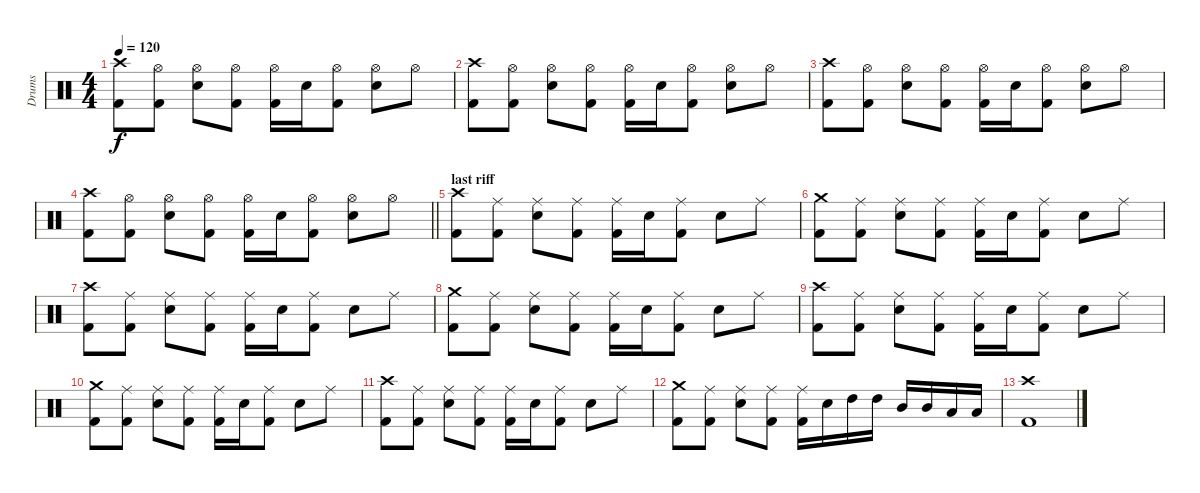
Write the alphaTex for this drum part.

\track ("Drums" "Drums") {instrument percussion}
\staff {score}
\articulation defaults
\ts (4 4)
\tempo 120
\clef neutral
\ks c
("Crash high (hit)" "Kick (hit) 2").8{dy f} ("Hi-Hat (open)" "Kick (hit) 2").8 ("Hi-Hat (open)" "Snare (hit) 2").8 ("Hi-Hat (open)" "Kick (hit) 2").8 ("Hi-Hat (open)" "Kick (hit) 2").16 "Snare (hit) 2".16 ("Hi-Hat (open)" "Kick (hit) 2").8 ("Hi-Hat (open)" "Snare (hit) 2").8 "Hi-Hat (open)".8 |
("Crash high (hit)" "Kick (hit) 2").8 ("Hi-Hat (open)" "Kick (hit) 2").8 ("Hi-Hat (open)" "Snare (hit) 2").8 ("Hi-Hat (open)" "Kick (hit) 2").8 ("Hi-Hat (open)" "Kick (hit) 2").16 "Snare (hit) 2".16 ("Hi-Hat (open)" "Kick (hit) 2").8 ("Hi-Hat (open)" "Snare (hit) 2").8 "Hi-Hat (open)".8 |
("Crash high (hit)" "Kick (hit) 2").8 ("Hi-Hat (open)" "Kick (hit) 2").8 ("Hi-Hat (open)" "Snare (hit) 2").8 ("Hi-Hat (open)" "Kick (hit) 2").8 ("Hi-Hat (open)" "Kick (hit) 2").16 "Snare (hit) 2".16 ("Hi-Hat (open)" "Kick (hit) 2").8 ("Hi-Hat (open)" "Snare (hit) 2").8 "Hi-Hat (open)".8 |
\barLineRight lightlight
("Crash high (hit)" "Kick (hit) 2").8 ("Hi-Hat (open)" "Kick (hit) 2").8 ("Hi-Hat (open)" "Snare (hit) 2").8 ("Hi-Hat (open)" "Kick (hit) 2").8 ("Hi-Hat (open)" "Kick (hit) 2").16 "Snare (hit) 2".16 ("Hi-Hat (open)" "Kick (hit) 2").8 ("Hi-Hat (open)" "Snare (hit) 2").8 "Hi-Hat (open)".8 |
\section ("" "last riff")
("Crash high (hit)" "Kick (hit) 2").8 ("Ride (middle)" "Kick (hit) 2").8 ("Ride (middle)" "Snare (hit) 2").8 ("Ride (middle)" "Kick (hit) 2").8 ("Ride (middle)" "Kick (hit) 2").16 "Snare (hit) 2".16 ("Ride (middle)" "Kick (hit) 2").8 "Snare (hit) 2".8 "Ride (middle)".8 |
("Crash medium (hit)" "Kick (hit) 2").8 ("Ride (middle)" "Kick (hit) 2").8 ("Ride (middle)" "Snare (hit) 2").8 ("Ride (middle)" "Kick (hit) 2").8 ("Ride (middle)" "Kick (hit) 2").16 "Snare (hit) 2".16 ("Ride (middle)" "Kick (hit) 2").8 "Snare (hit) 2".8 "Ride (middle)".8 |
("Crash high (hit)" "Kick (hit) 2").8 ("Ride (middle)" "Kick (hit) 2").8 ("Ride (middle)" "Snare (hit) 2").8 ("Ride (middle)" "Kick (hit) 2").8 ("Ride (middle)" "Kick (hit) 2").16 "Snare (hit) 2".16 ("Ride (middle)" "Kick (hit) 2").8 "Snare (hit) 2".8 "Ride (middle)".8 |
("Crash medium (hit)" "Kick (hit) 2").8 ("Ride (middle)" "Kick (hit) 2").8 ("Ride (middle)" "Snare (hit) 2").8 ("Ride (middle)" "Kick (hit) 2").8 ("Ride (middle)" "Kick (hit) 2").16 "Snare (hit) 2".16 ("Ride (middle)" "Kick (hit) 2").8 "Snare (hit) 2".8 "Ride (middle)".8 |
("Crash high (hit)" "Kick (hit) 2").8 ("Ride (middle)" "Kick (hit) 2").8 ("Ride (middle)" "Snare (hit) 2").8 ("Ride (middle)" "Kick (hit) 2").8 ("Ride (middle)" "Kick (hit) 2").16 "Snare (hit) 2".16 ("Ride (middle)" "Kick (hit) 2").8 "Snare (hit) 2".8 "Ride (middle)".8 |
("Crash medium (hit)" "Kick (hit) 2").8 ("Ride (middle)" "Kick (hit) 2").8 ("Ride (middle)" "Snare (hit) 2").8 ("Ride (middle)" "Kick (hit) 2").8 ("Ride (middle)" "Kick (hit) 2").16 "Snare (hit) 2".16 ("Ride (middle)" "Kick (hit) 2").8 "Snare (hit) 2".8 "Ride (middle)".8 |
("Crash high (hit)" "Kick (hit) 2").8 ("Ride (middle)" "Kick (hit) 2").8 ("Ride (middle)" "Snare (hit) 2").8 ("Ride (middle)" "Kick (hit) 2").8 ("Ride (middle)" "Kick (hit) 2").16 "Snare (hit) 2".16 ("Ride (middle)" "Kick (hit) 2").8 "Snare (hit) 2".8 "Ride (middle)".8 |
("Crash medium (hit)" "Kick (hit) 2").8 ("Ride (middle)" "Kick (hit) 2").8 ("Ride (middle)" "Snare (hit) 2").8 ("Ride (middle)" "Kick (hit) 2").8 ("Ride (middle)" "Kick (hit) 2").16 "Snare (hit) 2".16 "High Tom (hit)".16 "High Tom (hit)".16 "Mid Tom (hit)".16 "Mid Tom (hit)".16 "Low Tom (hit)".16 "Low Tom (hit)".16 |
("Crash high (hit)" "Kick (hit) 2").1
